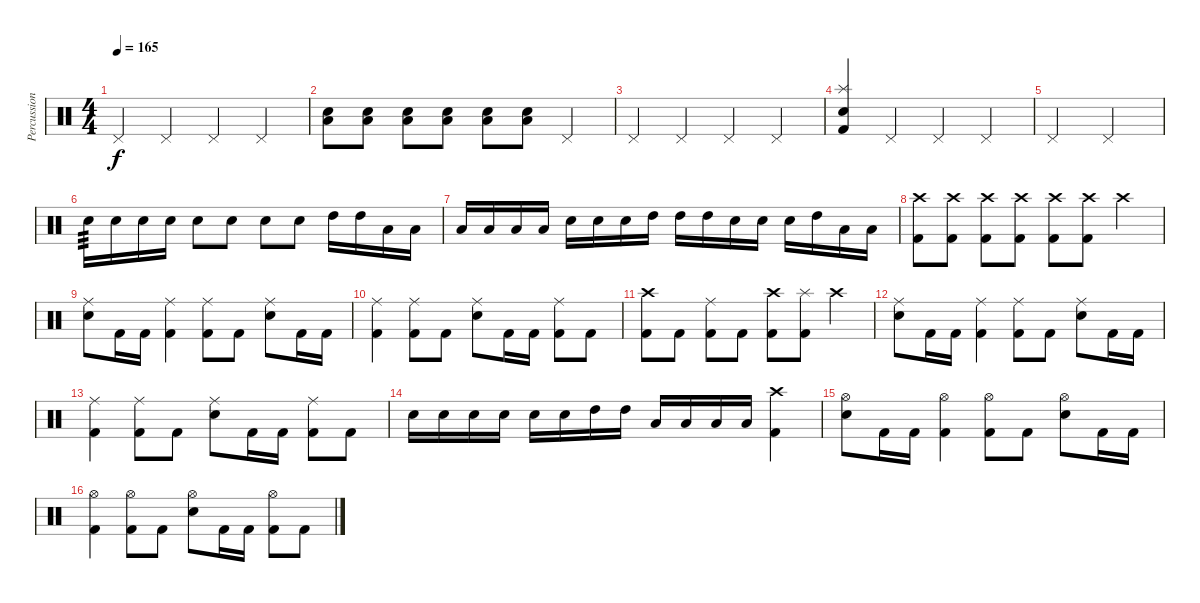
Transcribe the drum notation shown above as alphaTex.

\track ("Percussion" "Percussion") {instrument percussion}
\staff {score}
\articulation defaults
\ts (4 4)
\tempo 165
\clef neutral
\ks c "Pedal Hi-Hat (hit)".4{dy f} "Pedal Hi-Hat (hit)".4 "Pedal Hi-Hat (hit)".4 "Pedal Hi-Hat (hit)".4
|
("Electric Snare (hit)" "Low Floor Tom (hit)").8 ("Electric Snare (hit)" "Low Floor Tom (hit)").8 ("Electric Snare (hit)" "Low Floor Tom (hit)").8 ("Electric Snare (hit)" "Low Floor Tom (hit)").8 ("Electric Snare (hit)" "Low Floor Tom (hit)").8 ("Electric Snare (hit)" "Low Floor Tom (hit)").8 "Pedal Hi-Hat (hit)".4 |
"Pedal Hi-Hat (hit)".4 "Pedal Hi-Hat (hit)".4 "Pedal Hi-Hat (hit)".4 "Pedal Hi-Hat (hit)".4 |
("Splash (hit)" "Electric Snare (hit)" "Kick (hit) 2").4 "Pedal Hi-Hat (hit)".4 "Pedal Hi-Hat (hit)".4 "Pedal Hi-Hat (hit)".4 |
"Pedal Hi-Hat (hit)".2 "Pedal Hi-Hat (hit)".2 |
"Electric Snare (hit)".16{tp 3} "Electric Snare (hit)".16 "Electric Snare (hit)".16 "Electric Snare (hit)".16 "Electric Snare (hit)".8 "Electric Snare (hit)".8 "Electric Snare (hit)".8 "Electric Snare (hit)".8 "High Tom (hit)".16 "High Tom (hit)".16 "Low Tom (hit)".16 "Low Tom (hit)".16 |
"Low Floor Tom (hit)".16 "Low Floor Tom (hit)".16 "Low Floor Tom (hit)".16 "Low Floor Tom (hit)".16 "Electric Snare (hit)".16 "Electric Snare (hit)".16 "Electric Snare (hit)".16 "High Tom (hit)".16 "High Tom (hit)".16 "High Tom (hit)".16 "Electric Snare (hit)".16 "Electric Snare (hit)".16 "Electric Snare (hit)".16 "High Tom (hit)".16 "Low Tom (hit)".16 "Low Floor Tom (hit)".16 |
("Crash high (hit)" "Kick (hit) 2").8 ("Crash high (hit)" "Kick (hit) 2").8 ("Crash high (hit)" "Kick (hit) 2").8 ("Crash high (hit)" "Kick (hit) 2").8 ("Crash high (hit)" "Kick (hit) 2").8 ("Crash high (hit)" "Kick (hit) 2").8 "Crash high (hit)".4 |
("Ride (middle)" "Electric Snare (hit)").8 "Kick (hit) 2".16 "Kick (hit) 2".16 ("Ride (middle)" "Kick (hit) 2").4 ("Ride (middle)" "Kick (hit) 2").8 "Kick (hit) 2".8 ("Ride (middle)" "Electric Snare (hit)").8 "Kick (hit) 2".16 "Kick (hit) 2".16 |
("Ride (middle)" "Kick (hit) 2").4 ("Ride (middle)" "Kick (hit) 2").8 "Kick (hit) 2".8 ("Ride (middle)" "Electric Snare (hit)").8 "Kick (hit) 2".16 "Kick (hit) 2".16 ("Ride (middle)" "Kick (hit) 2").8 "Kick (hit) 2".8 |
("Crash high (hit)" "Kick (hit) 2").8 "Kick (hit) 2".8 ("Ride (middle)" "Kick (hit) 2").8 "Kick (hit) 2".8 ("Crash high (hit)" "Kick (hit) 2").8 ("Splash (hit)" "Kick (hit) 2").8 "Crash high (hit)".4 |
("Ride (middle)" "Electric Snare (hit)").8 "Kick (hit) 2".16 "Kick (hit) 2".16 ("Ride (middle)" "Kick (hit) 2").4 ("Ride (middle)" "Kick (hit) 2").8 "Kick (hit) 2".8 ("Ride (middle)" "Electric Snare (hit)").8 "Kick (hit) 2".16 "Kick (hit) 2".16 |
("Ride (middle)" "Kick (hit) 2").4 ("Ride (middle)" "Kick (hit) 2").8 "Kick (hit) 2".8 ("Ride (middle)" "Electric Snare (hit)").8 "Kick (hit) 2".16 "Kick (hit) 2".16 ("Ride (middle)" "Kick (hit) 2").8 "Kick (hit) 2".8 |
"Electric Snare (hit)".16 "Electric Snare (hit)".16 "Electric Snare (hit)".16 "Electric Snare (hit)".16 "Electric Snare (hit)".16 "Electric Snare (hit)".16 "High Tom (hit)".16 "High Tom (hit)".16 "Low Tom (hit)".16 "Low Tom (hit)".16 "Low Floor Tom (hit)".16 "Low Floor Tom (hit)".16 ("Crash high (hit)" "Kick (hit) 2").4 |
("Hi-Hat (open)" "Electric Snare (hit)").8 "Kick (hit) 2".16 "Kick (hit) 2".16 ("Hi-Hat (open)" "Kick (hit) 2").4 ("Hi-Hat (open)" "Kick (hit) 2").8 "Kick (hit) 2".8 ("Hi-Hat (open)" "Electric Snare (hit)").8 "Kick (hit) 2".16 "Kick (hit) 2".16 |
("Hi-Hat (open)" "Kick (hit) 2").4 ("Hi-Hat (open)" "Kick (hit) 2").8 "Kick (hit) 2".8 ("Hi-Hat (open)" "Electric Snare (hit)").8 "Kick (hit) 2".16 "Kick (hit) 2".16 ("Hi-Hat (open)" "Kick (hit) 2").8 "Kick (hit) 2".8
